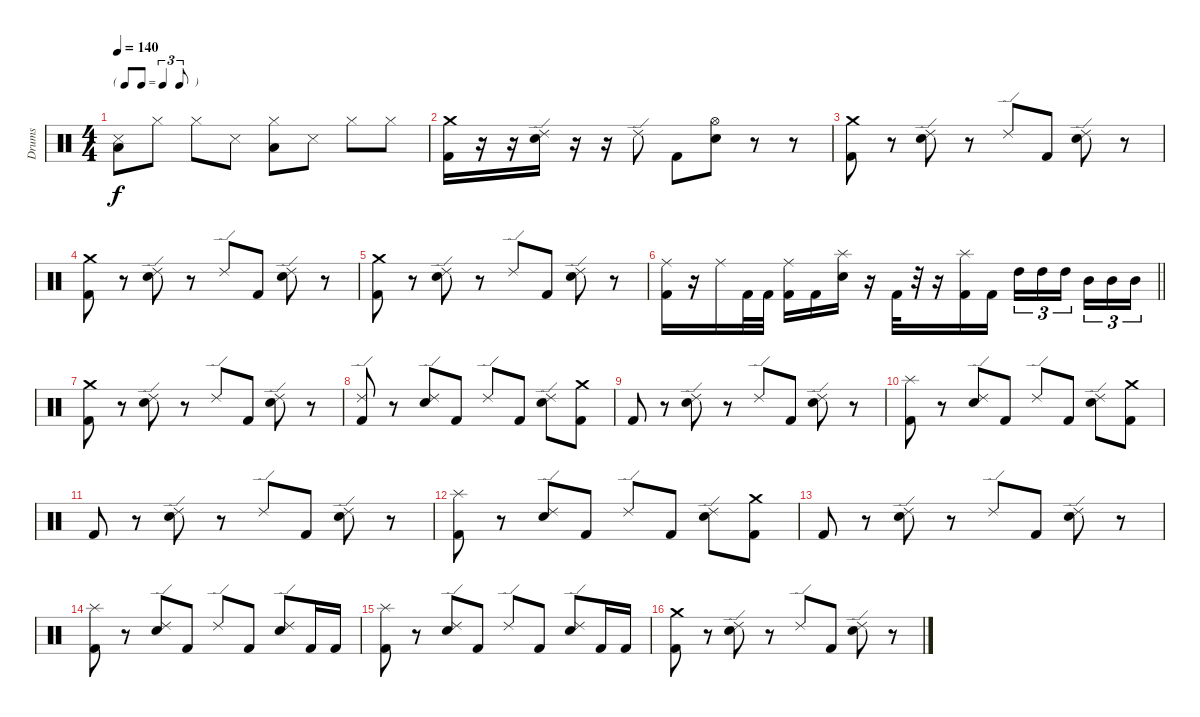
\track ("Drums" "Drums") {instrument percussion}
\staff {score}
\articulation defaults
\ts (4 4)
\tf triplet8th
\tempo 140
\clef neutral
\ks c
("Low Tom (hit)" "Snare (side stick) 3").8{dy f} "Hi-Hat (closed)".8 "Hi-Hat (closed)".8 "Snare (side stick) 3".8 ("Low Tom (hit)" "Hi-Hat (closed)").8 "Snare (side stick) 3".8 "Hi-Hat (closed)".8 "Hi-Hat (closed)".8 |
("Crash medium (hit)" "Kick (hit) 2").16 r.16 r.16 ("Ride (edge) 2" "Electric Snare (hit)").16 r.16 r.16 "Ride (edge) 2".8 "Kick (hit) 2".8 ("Hi-Hat (open)" "Electric Snare (hit)").8 r.8 r.8 |
("Crash medium (hit)" "Kick (hit) 2").8 r.8 ("Ride (edge) 2" "Electric Snare (hit)").8 r.8 "Ride (edge) 2".8 "Kick (hit) 2".8 ("Ride (edge) 2" "Electric Snare (hit)").8 r.8 |
("Crash medium (hit)" "Kick (hit) 2").8 r.8 ("Ride (edge) 2" "Electric Snare (hit)").8 r.8 "Ride (edge) 2".8 "Kick (hit) 2".8 ("Ride (edge) 2" "Electric Snare (hit)").8 r.8 |
("Crash medium (hit)" "Kick (hit) 2").8 r.8 ("Ride (edge) 2" "Electric Snare (hit)").8 r.8 "Ride (edge) 2".8 "Kick (hit) 2".8 ("Ride (edge) 2" "Electric Snare (hit)").8 r.8 |
\barLineRight lightlight
("Ride (middle)" "Kick (hit) 2").16 r.16 "Ride (middle)".16 "Kick (hit) 2".32 "Kick (hit) 2".32 ("Ride (middle)" "Kick (hit) 2").16 "Kick (hit) 2".16 ("Splash (hit)" "Electric Snare (hit)").16 r.16 "Kick (hit) 2".32 r.32 r.16 ("Splash (hit)" "Kick (hit) 2").16 "Kick (hit) 2".16 "High Tom (hit)".16{tu (3 2)} "High Tom (hit)".16{tu (3 2)} "High Tom (hit)".16{tu (3 2) beam splitsecondary} "Mid Tom (hit)".16{tu (3 2)} "Mid Tom (hit)".16{tu (3 2)} "Mid Tom (hit)".16{tu (3 2)} |
("Crash medium (hit)" "Kick (hit) 2").8 r.8 ("Ride (edge) 2" "Electric Snare (hit)").8 r.8 "Ride (edge) 2".8 "Kick (hit) 2".8 ("Ride (edge) 2" "Electric Snare (hit)").8 r.8 |
("Ride (edge) 2" "Kick (hit) 2").8 r.8 ("Ride (edge) 2" "Electric Snare (hit)").8 "Kick (hit) 2".8 "Ride (edge) 2".8 "Kick (hit) 2".8 ("Ride (edge) 2" "Electric Snare (hit)").8 ("Crash medium (hit)" "Kick (hit) 2").8 |
"Kick (hit) 2".8 r.8 ("Ride (edge) 2" "Electric Snare (hit)").8 r.8 "Ride (edge) 2".8 "Kick (hit) 2".8 ("Ride (edge) 2" "Electric Snare (hit)").8 r.8 |
("Splash (hit)" "Kick (hit) 2").8 r.8 ("Ride (edge) 2" "Electric Snare (hit)").8 "Kick (hit) 2".8 "Ride (edge) 2".8 "Kick (hit) 2".8 ("Ride (edge) 2" "Electric Snare (hit)").8 ("Crash medium (hit)" "Kick (hit) 2").8 |
"Kick (hit) 2".8 r.8 ("Ride (edge) 2" "Electric Snare (hit)").8 r.8 "Ride (edge) 2".8 "Kick (hit) 2".8 ("Ride (edge) 2" "Electric Snare (hit)").8 r.8 |
("Splash (hit)" "Kick (hit) 2").8 r.8 ("Ride (edge) 2" "Electric Snare (hit)").8 "Kick (hit) 2".8 "Ride (edge) 2".8 "Kick (hit) 2".8 ("Ride (edge) 2" "Electric Snare (hit)").8 ("Crash medium (hit)" "Kick (hit) 2").8 |
"Kick (hit) 2".8 r.8 ("Ride (edge) 2" "Electric Snare (hit)").8 r.8 "Ride (edge) 2".8 "Kick (hit) 2".8 ("Ride (edge) 2" "Electric Snare (hit)").8 r.8 |
("Splash (hit)" "Kick (hit) 2").8 r.8 ("Ride (edge) 2" "Electric Snare (hit)").8 "Kick (hit) 2".8 "Ride (edge) 2".8 "Kick (hit) 2".8 ("Ride (edge) 2" "Electric Snare (hit)").8 "Kick (hit) 2".16 "Kick (hit) 2".16 |
("Splash (hit)" "Kick (hit) 2").8 r.8 ("Ride (edge) 2" "Electric Snare (hit)").8 "Kick (hit) 2".8 "Ride (edge) 2".8 "Kick (hit) 2".8 ("Ride (edge) 2" "Electric Snare (hit)").8 "Kick (hit) 2".16 "Kick (hit) 2".16 |
("Crash medium (hit)" "Kick (hit) 2").8 r.8 ("Ride (edge) 2" "Electric Snare (hit)").8 r.8 "Ride (edge) 2".8 "Kick (hit) 2".8 ("Ride (edge) 2" "Electric Snare (hit)").8 r.8
